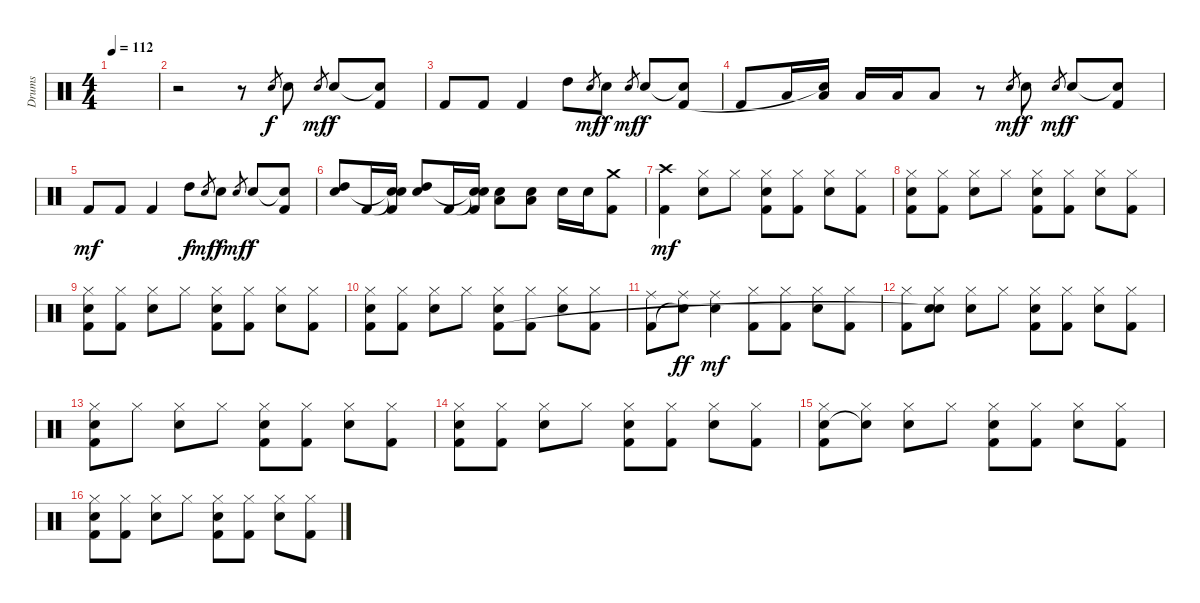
\track ("Drums" "Drums") {instrument percussion}
\staff {score}
\articulation defaults
\ts (4 4)
\tempo 112
\clef neutral
\ks c
|
r.2 r.8 "Electric Snare (hit)".8{gr} "Electric Snare (hit)".8{dy f} "Electric Snare (hit)".8{gr dy mf} "Electric Snare (hit)".8{dy f} ("Snare (hit)"{t} "Kick (hit) 2").8 |
"Kick (hit) 2".8 "Kick (hit) 2".8 "Kick (hit) 2".4 "High Tom (hit)".8 "Electric Snare (hit)".8{gr dy mf} "Electric Snare (hit)".8{dy f} "Electric Snare (hit)".8{gr dy mf} "Electric Snare (hit)".8{dy f} ("Snare (hit)"{t} "Kick (hit) 2").8 |
"Kick (hit) 2".8 "Low Tom (hit)".16 ("Low Tom (hit)" "Snare (hit)"{t}).16 "Low Tom (hit)".16 "Low Tom (hit)".16 "Low Tom (hit)".8 r.8 "Electric Snare (hit)".8{gr dy mf} "Electric Snare (hit)".8{dy f} "Electric Snare (hit)".8{gr dy mf} "Electric Snare (hit)".8{dy f} ("Snare (hit)"{t} "Kick (hit) 2").8 |
"Kick (hit) 2".8{dy mf} "Kick (hit) 2".8 "Kick (hit) 2".4 "High Tom (hit)".8{dy f} "Electric Snare (hit)".8{gr dy mf} "Electric Snare (hit)".8{dy f} "Electric Snare (hit)".8{gr dy mf} "Electric Snare (hit)".8{dy f} ("Snare (hit)"{t} "Kick (hit) 2").8 |
("High Tom (hit)" "Electric Snare (hit)").8 "Kick (hit) 2".16 ("Snare (hit)"{t} "Snare (hit)"{t} "Kick (hit) 2").16 ("High Tom (hit)" "Electric Snare (hit)").8 "Kick (hit) 2".16 ("Snare (hit)"{t} "Snare (hit)"{t} "Kick (hit) 2").16 ("Low Tom (hit)" "Electric Snare (hit)").8 ("Low Tom (hit)" "Electric Snare (hit)").8 "Electric Snare (hit)".16 "Electric Snare (hit)".16 ("Crash medium (hit)" "Kick (hit) 2").8 |
("Crash high (hit)" "Kick (hit) 2").4{dy mf} ("Hi-Hat (closed)" "Electric Snare (hit)").8 "Hi-Hat (closed)".8 ("Hi-Hat (closed)" "Electric Snare (hit)" "Kick (hit) 2").8 ("Hi-Hat (closed)" "Kick (hit) 2").8 ("Hi-Hat (closed)" "Electric Snare (hit)").8 ("Hi-Hat (closed)" "Kick (hit) 2").8 |
("Hi-Hat (closed)" "Electric Snare (hit)" "Kick (hit) 2").8 ("Hi-Hat (closed)" "Kick (hit) 2").8 ("Hi-Hat (closed)" "Electric Snare (hit)").8 "Hi-Hat (closed)".8 ("Hi-Hat (closed)" "Electric Snare (hit)" "Kick (hit) 2").8 ("Hi-Hat (closed)" "Kick (hit) 2").8 ("Hi-Hat (closed)" "Electric Snare (hit)").8 ("Hi-Hat (closed)" "Kick (hit) 2").8 |
("Hi-Hat (closed)" "Electric Snare (hit)" "Kick (hit) 2").8 ("Hi-Hat (closed)" "Kick (hit) 2").8 ("Hi-Hat (closed)" "Electric Snare (hit)").8 "Hi-Hat (closed)".8 ("Hi-Hat (closed)" "Electric Snare (hit)" "Kick (hit) 2").8 ("Hi-Hat (closed)" "Kick (hit) 2").8 ("Hi-Hat (closed)" "Electric Snare (hit)").8 ("Hi-Hat (closed)" "Kick (hit) 2").8 |
("Hi-Hat (closed)" "Electric Snare (hit)" "Kick (hit) 2").8 ("Hi-Hat (closed)" "Kick (hit) 2").8 ("Hi-Hat (closed)" "Electric Snare (hit)").8 "Hi-Hat (closed)".8 ("Hi-Hat (closed)" "Electric Snare (hit)" "Kick (hit) 2").8 ("Hi-Hat (closed)" "Kick (hit) 2").8 ("Hi-Hat (closed)" "Electric Snare (hit)").8 ("Hi-Hat (closed)" "Kick (hit) 2").8 |
("Ride (middle)" "Kick (hit) 2").8 ("Ride (middle)" "Snare (hit)"{t}).8{dy ff} ("Ride (middle)" "Electric Snare (hit)").4{dy mf} ("Hi-Hat (closed)" "Kick (hit) 2").8 ("Hi-Hat (closed)" "Kick (hit) 2").8 ("Hi-Hat (closed)" "Electric Snare (hit)").8 ("Hi-Hat (closed)" "Kick (hit) 2").8 |
("Hi-Hat (closed)" "Kick (hit) 2").8 ("Hi-Hat (closed)" "Electric Snare (hit)" "Snare (hit)"{t}).8 ("Hi-Hat (closed)" "Electric Snare (hit)").8 "Hi-Hat (closed)".8 ("Hi-Hat (closed)" "Electric Snare (hit)" "Kick (hit) 2").8 ("Hi-Hat (closed)" "Kick (hit) 2").8 ("Hi-Hat (closed)" "Electric Snare (hit)").8 ("Hi-Hat (closed)" "Kick (hit) 2").8 |
("Hi-Hat (closed)" "Electric Snare (hit)" "Kick (hit) 2").8 "Hi-Hat (closed)".8 ("Hi-Hat (closed)" "Electric Snare (hit)").8 "Hi-Hat (closed)".8 ("Hi-Hat (closed)" "Electric Snare (hit)" "Kick (hit) 2").8 ("Hi-Hat (closed)" "Kick (hit) 2").8 ("Hi-Hat (closed)" "Electric Snare (hit)").8 ("Hi-Hat (closed)" "Kick (hit) 2").8 |
("Hi-Hat (closed)" "Electric Snare (hit)" "Kick (hit) 2").8 ("Hi-Hat (closed)" "Kick (hit) 2").8 ("Hi-Hat (closed)" "Electric Snare (hit)").8 "Hi-Hat (closed)".8 ("Hi-Hat (closed)" "Electric Snare (hit)" "Kick (hit) 2").8 ("Hi-Hat (closed)" "Kick (hit) 2").8 ("Hi-Hat (closed)" "Electric Snare (hit)").8 ("Hi-Hat (closed)" "Kick (hit) 2").8 |
("Hi-Hat (closed)" "Electric Snare (hit)" "Kick (hit) 2").8 ("Hi-Hat (closed)" "Snare (hit)"{t}).8 ("Hi-Hat (closed)" "Electric Snare (hit)").8 "Hi-Hat (closed)".8 ("Hi-Hat (closed)" "Electric Snare (hit)" "Kick (hit) 2").8 ("Hi-Hat (closed)" "Kick (hit) 2").8 ("Hi-Hat (closed)" "Electric Snare (hit)").8 ("Hi-Hat (closed)" "Kick (hit) 2").8 |
("Hi-Hat (closed)" "Electric Snare (hit)" "Kick (hit) 2").8 ("Hi-Hat (closed)" "Kick (hit) 2").8 ("Hi-Hat (closed)" "Electric Snare (hit)").8 "Hi-Hat (closed)".8 ("Hi-Hat (closed)" "Electric Snare (hit)" "Kick (hit) 2").8 ("Hi-Hat (closed)" "Kick (hit) 2").8 ("Hi-Hat (closed)" "Electric Snare (hit)").8 ("Hi-Hat (closed)" "Kick (hit) 2").8
